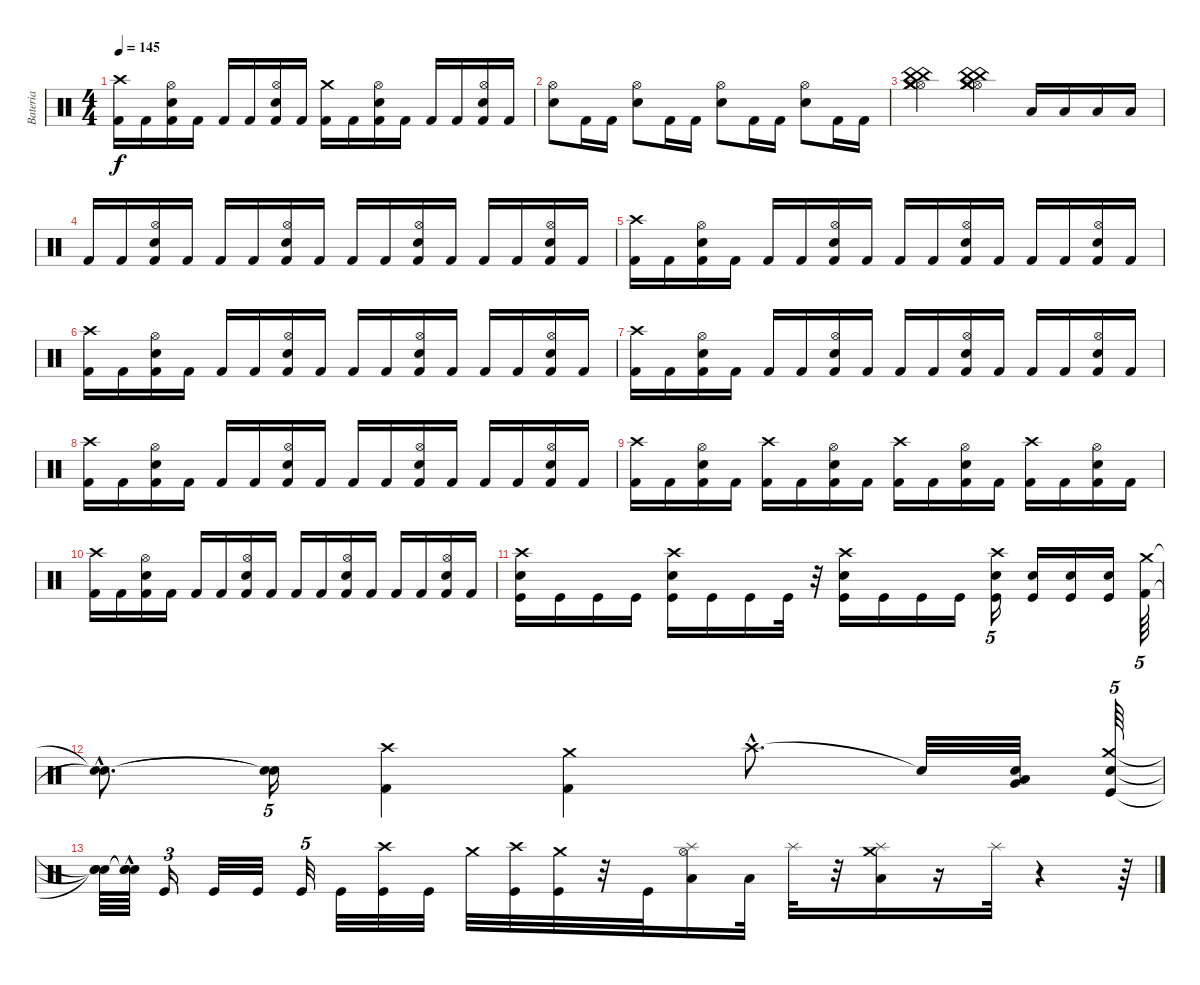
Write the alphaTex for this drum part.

\track ("Bateria" "Bateria") {instrument percussion}
\staff {score}
\articulation defaults
\ts (4 4)
\tempo 145
\clef neutral
\ks c
("Crash high (hit)" "Kick (hit) 2").16{dy f} "Kick (hit) 2".16 ("Hi-Hat (open)" "Snare (hit) 2" "Kick (hit) 2").16 "Kick (hit) 2".16 "Kick (hit) 2".16 "Kick (hit) 2".16 ("Hi-Hat (open)" "Snare (hit) 2" "Kick (hit) 2").16 "Kick (hit) 2".16 ("Crash medium (hit)" "Kick (hit) 2").16 "Kick (hit) 2".16 ("Hi-Hat (open)" "Snare (hit) 2" "Kick (hit) 2").16 "Kick (hit) 2".16 "Kick (hit) 2".16 "Kick (hit) 2".16 ("Hi-Hat (open)" "Snare (hit) 2" "Kick (hit) 2").16 "Kick (hit) 2".16 |
("Hi-Hat (open)" "Snare (hit) 2").8 "Kick (hit) 2".16 "Kick (hit) 2".16 ("Hi-Hat (open)" "Snare (hit) 2").8 "Kick (hit) 2".16 "Kick (hit) 2".16 ("Hi-Hat (open)" "Snare (hit) 2").8 "Kick (hit) 2".16 "Kick (hit) 2".16 ("Hi-Hat (open)" "Snare (hit) 2").8 "Kick (hit) 2".16 "Kick (hit) 2".16 |
("Hi-Hat (open)" "Crash medium (hit)" "China (hit)" "Crash medium (hit)" "China (hit)" "Crash medium (hit)").2 ("Hi-Hat (open)" "Crash medium (hit)" "China (hit)" "Crash medium (hit)" "China (hit)" "Crash medium (hit)").4 "Low Tom (hit)".16 "Low Tom (hit)".16 "Low Tom (hit)".16 "Low Tom (hit)".16 |
"Kick (hit) 2".16 "Kick (hit) 2".16 ("Snare (hit) 2" "Hi-Hat (open)" "Kick (hit) 2").16 "Kick (hit) 2".16 "Kick (hit) 2".16 "Kick (hit) 2".16 ("Snare (hit) 2" "Hi-Hat (open)" "Kick (hit) 2").16 "Kick (hit) 2".16 "Kick (hit) 2".16 "Kick (hit) 2".16 ("Snare (hit) 2" "Hi-Hat (open)" "Kick (hit) 2").16 "Kick (hit) 2".16 "Kick (hit) 2".16 "Kick (hit) 2".16 ("Snare (hit) 2" "Hi-Hat (open)" "Kick (hit) 2").16 "Kick (hit) 2".16 |
("Crash high (hit)" "Kick (hit) 2").16 "Kick (hit) 2".16 ("Snare (hit) 2" "Hi-Hat (open)" "Kick (hit) 2").16 "Kick (hit) 2".16 "Kick (hit) 2".16 "Kick (hit) 2".16 ("Snare (hit) 2" "Hi-Hat (open)" "Kick (hit) 2").16 "Kick (hit) 2".16 "Kick (hit) 2".16 "Kick (hit) 2".16 ("Snare (hit) 2" "Hi-Hat (open)" "Kick (hit) 2").16 "Kick (hit) 2".16 "Kick (hit) 2".16 "Kick (hit) 2".16 ("Snare (hit) 2" "Hi-Hat (open)" "Kick (hit) 2").16 "Kick (hit) 2".16 |
("Crash high (hit)" "Kick (hit) 2").16 "Kick (hit) 2".16 ("Snare (hit) 2" "Hi-Hat (open)" "Kick (hit) 2").16 "Kick (hit) 2".16 "Kick (hit) 2".16 "Kick (hit) 2".16 ("Snare (hit) 2" "Hi-Hat (open)" "Kick (hit) 2").16 "Kick (hit) 2".16 "Kick (hit) 2".16 "Kick (hit) 2".16 ("Snare (hit) 2" "Hi-Hat (open)" "Kick (hit) 2").16 "Kick (hit) 2".16 "Kick (hit) 2".16 "Kick (hit) 2".16 ("Snare (hit) 2" "Hi-Hat (open)" "Kick (hit) 2").16 "Kick (hit) 2".16 |
("Crash high (hit)" "Kick (hit) 2").16 "Kick (hit) 2".16 ("Snare (hit) 2" "Hi-Hat (open)" "Kick (hit) 2").16 "Kick (hit) 2".16 "Kick (hit) 2".16 "Kick (hit) 2".16 ("Snare (hit) 2" "Hi-Hat (open)" "Kick (hit) 2").16 "Kick (hit) 2".16 "Kick (hit) 2".16 "Kick (hit) 2".16 ("Snare (hit) 2" "Hi-Hat (open)" "Kick (hit) 2").16 "Kick (hit) 2".16 "Kick (hit) 2".16 "Kick (hit) 2".16 ("Snare (hit) 2" "Hi-Hat (open)" "Kick (hit) 2").16 "Kick (hit) 2".16 |
("Crash high (hit)" "Kick (hit) 2").16 "Kick (hit) 2".16 ("Snare (hit) 2" "Hi-Hat (open)" "Kick (hit) 2").16 "Kick (hit) 2".16 "Kick (hit) 2".16 "Kick (hit) 2".16 ("Snare (hit) 2" "Hi-Hat (open)" "Kick (hit) 2").16 "Kick (hit) 2".16 "Kick (hit) 2".16 "Kick (hit) 2".16 ("Snare (hit) 2" "Hi-Hat (open)" "Kick (hit) 2").16 "Kick (hit) 2".16 "Kick (hit) 2".16 "Kick (hit) 2".16 ("Snare (hit) 2" "Hi-Hat (open)" "Kick (hit) 2").16 "Kick (hit) 2".16 |
("Crash high (hit)" "Kick (hit) 2").16 "Kick (hit) 2".16 ("Snare (hit) 2" "Hi-Hat (open)" "Kick (hit) 2").16 "Kick (hit) 2".16 ("Crash high (hit)" "Kick (hit) 2").16 "Kick (hit) 2".16 ("Snare (hit) 2" "Hi-Hat (open)" "Kick (hit) 2").16 "Kick (hit) 2".16 ("Crash high (hit)" "Kick (hit) 2").16 "Kick (hit) 2".16 ("Snare (hit) 2" "Hi-Hat (open)" "Kick (hit) 2").16 "Kick (hit) 2".16 ("Crash high (hit)" "Kick (hit) 2").16 "Kick (hit) 2".16 ("Snare (hit) 2" "Hi-Hat (open)" "Kick (hit) 2").16 "Kick (hit) 2".16 |
("Crash high (hit)" "Kick (hit) 2").16 "Kick (hit) 2".16 ("Snare (hit) 2" "Hi-Hat (open)" "Kick (hit) 2").16 "Kick (hit) 2".16 "Kick (hit) 2".16 "Kick (hit) 2".16 ("Snare (hit) 2" "Hi-Hat (open)" "Kick (hit) 2").16 "Kick (hit) 2".16 "Kick (hit) 2".16 "Kick (hit) 2".16 ("Snare (hit) 2" "Hi-Hat (open)" "Kick (hit) 2").16 "Kick (hit) 2".16 "Kick (hit) 2".16 "Kick (hit) 2".16 ("Snare (hit) 2" "Hi-Hat (open)" "Kick (hit) 2").16 "Kick (hit) 2".16 |
("Snare (hit) 2" "Kick (hit)" "Crash high (hit)").16 "Kick (hit)".16 "Kick (hit)".16 "Kick (hit)".16 ("Snare (hit) 2" "Kick (hit)" "Crash high (hit)").16 "Kick (hit)".16 "Kick (hit)".16 "Kick (hit)".32 r.32 ("Kick (hit)" "Snare (hit) 2" "Crash high (hit)").16 "Kick (hit)".16 "Kick (hit)".16 "Kick (hit)".16 ("Crash high (hit)" "Kick (hit)" "Snare (hit) 2").16{tu (5 4)} ("Snare (hit) 2" "Kick (hit)").16 ("Snare (hit) 2" "Kick (hit)").16 ("Kick (hit)" "Snare (hit) 2").16 ("Crash medium (hit)" "Kick (hit) 2").64{tu (5 4)} |
("Snare (hit)"{hac t} "Snare (hit)"{hac t}).8{d} ("Snare (hit)"{t} "Snare (hit)"{t}).16{tu (5 4)} ("Kick (hit) 2" "Crash high (hit)").4 ("Crash medium (hit)" "Kick (hit) 2").4 "Crash high (hit)"{hac}.8{d} "Snare (hit)"{t}.32 ("Very Low Tom (hit)" "Low Tom (hit)" "Snare (hit) 2").32 ("Kick (hit)" "Snare (hit) 2" "Crash medium (hit)").64{tu (5 4)} |
("Snare (hit)"{t} "Snare (hit)"{t} "Snare (hit)"{t}).64 ("Snare (hit)"{t} "Snare (hit)"{t} "Snare (hit)"{hac t}).64 "Kick (hit)".16{tu (3 2)} "Kick (hit)".32 "Kick (hit)".32 "Kick (hit)".32{tu (5 4)} "Kick (hit)".32 ("Crash high (hit)" "Kick (hit)").32 "Kick (hit)".32 "Crash medium (hit)".32 ("Kick (hit)" "Crash high (hit)").32 ("Kick (hit)" "Crash medium (hit)").32 r.32 "Kick (hit)".32 ("Hi-Hat (open)" "Low Tom (hit)" "Splash (hit)").16 "Low Tom (hit)".32 "Splash (hit)".32 r.32 ("Splash (hit)" "Crash medium (hit)" "Low Floor Tom (hit)").16 r.16 "Splash (hit)".32 r.4 r.64
